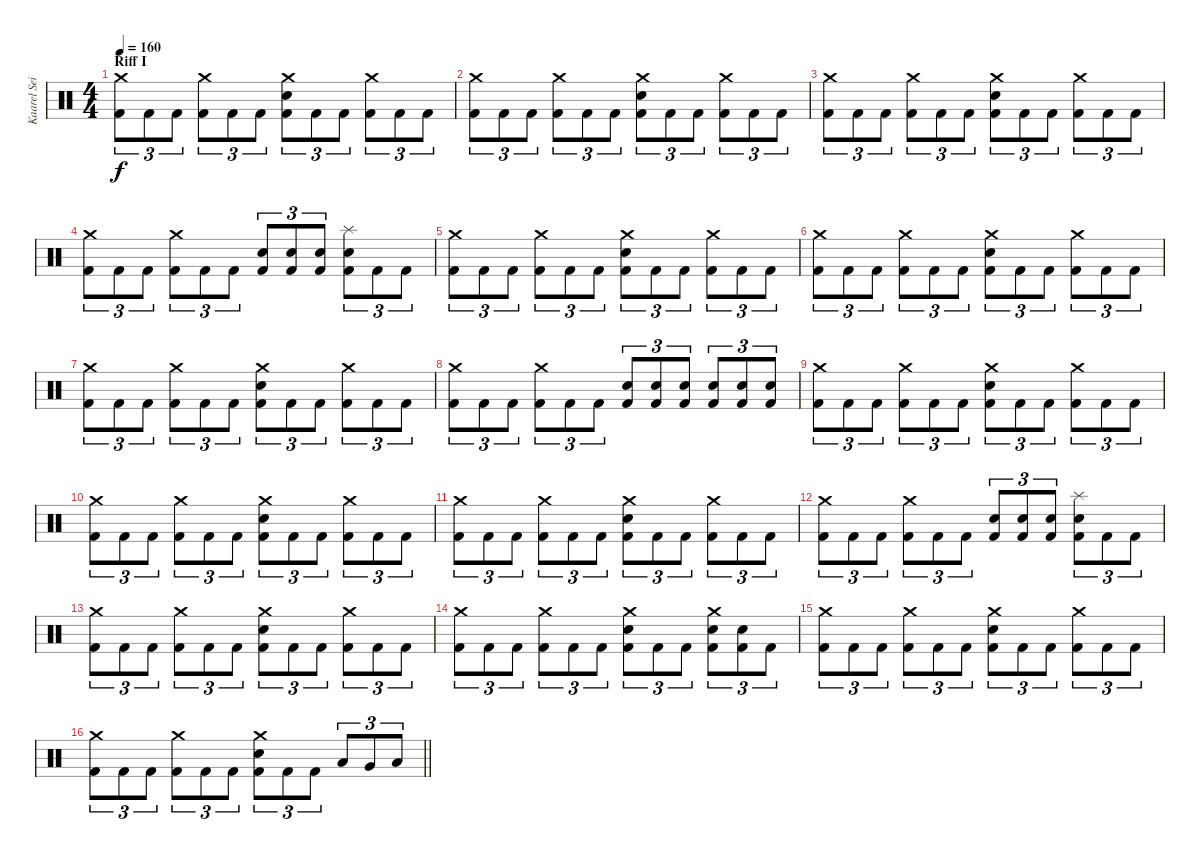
\track ("Kaarel Sein" "Kaarel Sei") {instrument percussion}
\staff {score}
\articulation defaults
\ts (4 4)
\section ("" "Riff I")
\tempo 160
\clef neutral
\ks c
("Crash medium (hit)" "Kick (hit) 2").8{tu (3 2) dy f} "Kick (hit) 2".8{tu (3 2)} "Kick (hit) 2".8{tu (3 2)} ("Crash medium (hit)" "Kick (hit) 2").8{tu (3 2)} "Kick (hit) 2".8{tu (3 2)} "Kick (hit) 2".8{tu (3 2)} ("Crash medium (hit)" "Electric Snare (hit)" "Kick (hit) 2").8{tu (3 2)} "Kick (hit) 2".8{tu (3 2)} "Kick (hit) 2".8{tu (3 2)} ("Crash medium (hit)" "Kick (hit) 2").8{tu (3 2)} "Kick (hit) 2".8{tu (3 2)} "Kick (hit) 2".8{tu (3 2)} |
("Crash medium (hit)" "Kick (hit) 2").8{tu (3 2)} "Kick (hit) 2".8{tu (3 2)} "Kick (hit) 2".8{tu (3 2)} ("Crash medium (hit)" "Kick (hit) 2").8{tu (3 2)} "Kick (hit) 2".8{tu (3 2)} "Kick (hit) 2".8{tu (3 2)} ("Crash medium (hit)" "Electric Snare (hit)" "Kick (hit) 2").8{tu (3 2)} "Kick (hit) 2".8{tu (3 2)} "Kick (hit) 2".8{tu (3 2)} ("Crash medium (hit)" "Kick (hit) 2").8{tu (3 2)} "Kick (hit) 2".8{tu (3 2)} "Kick (hit) 2".8{tu (3 2)} |
("Crash medium (hit)" "Kick (hit) 2").8{tu (3 2)} "Kick (hit) 2".8{tu (3 2)} "Kick (hit) 2".8{tu (3 2)} ("Crash medium (hit)" "Kick (hit) 2").8{tu (3 2)} "Kick (hit) 2".8{tu (3 2)} "Kick (hit) 2".8{tu (3 2)} ("Crash medium (hit)" "Electric Snare (hit)" "Kick (hit) 2").8{tu (3 2)} "Kick (hit) 2".8{tu (3 2)} "Kick (hit) 2".8{tu (3 2)} ("Crash medium (hit)" "Kick (hit) 2").8{tu (3 2)} "Kick (hit) 2".8{tu (3 2)} "Kick (hit) 2".8{tu (3 2)} |
("Crash medium (hit)" "Kick (hit) 2").8{tu (3 2)} "Kick (hit) 2".8{tu (3 2)} "Kick (hit) 2".8{tu (3 2)} ("Crash medium (hit)" "Kick (hit) 2").8{tu (3 2)} "Kick (hit) 2".8{tu (3 2)} "Kick (hit) 2".8{tu (3 2)} ("Electric Snare (hit)" "Kick (hit) 2").8{tu (3 2)} ("Electric Snare (hit)" "Kick (hit) 2").8{tu (3 2)} ("Electric Snare (hit)" "Kick (hit) 2").8{tu (3 2)} ("Splash (hit)" "Electric Snare (hit)" "Kick (hit) 2").8{tu (3 2)} "Kick (hit) 2".8{tu (3 2)} "Kick (hit) 2".8{tu (3 2)} |
("Crash medium (hit)" "Kick (hit) 2").8{tu (3 2)} "Kick (hit) 2".8{tu (3 2)} "Kick (hit) 2".8{tu (3 2)} ("Crash medium (hit)" "Kick (hit) 2").8{tu (3 2)} "Kick (hit) 2".8{tu (3 2)} "Kick (hit) 2".8{tu (3 2)} ("Crash medium (hit)" "Electric Snare (hit)" "Kick (hit) 2").8{tu (3 2)} "Kick (hit) 2".8{tu (3 2)} "Kick (hit) 2".8{tu (3 2)} ("Crash medium (hit)" "Kick (hit) 2").8{tu (3 2)} "Kick (hit) 2".8{tu (3 2)} "Kick (hit) 2".8{tu (3 2)} |
("Crash medium (hit)" "Kick (hit) 2").8{tu (3 2)} "Kick (hit) 2".8{tu (3 2)} "Kick (hit) 2".8{tu (3 2)} ("Crash medium (hit)" "Kick (hit) 2").8{tu (3 2)} "Kick (hit) 2".8{tu (3 2)} "Kick (hit) 2".8{tu (3 2)} ("Crash medium (hit)" "Electric Snare (hit)" "Kick (hit) 2").8{tu (3 2)} "Kick (hit) 2".8{tu (3 2)} "Kick (hit) 2".8{tu (3 2)} ("Crash medium (hit)" "Kick (hit) 2").8{tu (3 2)} "Kick (hit) 2".8{tu (3 2)} "Kick (hit) 2".8{tu (3 2)} |
("Crash medium (hit)" "Kick (hit) 2").8{tu (3 2)} "Kick (hit) 2".8{tu (3 2)} "Kick (hit) 2".8{tu (3 2)} ("Crash medium (hit)" "Kick (hit) 2").8{tu (3 2)} "Kick (hit) 2".8{tu (3 2)} "Kick (hit) 2".8{tu (3 2)} ("Crash medium (hit)" "Electric Snare (hit)" "Kick (hit) 2").8{tu (3 2)} "Kick (hit) 2".8{tu (3 2)} "Kick (hit) 2".8{tu (3 2)} ("Crash medium (hit)" "Kick (hit) 2").8{tu (3 2)} "Kick (hit) 2".8{tu (3 2)} "Kick (hit) 2".8{tu (3 2)} |
("Crash medium (hit)" "Kick (hit) 2").8{tu (3 2)} "Kick (hit) 2".8{tu (3 2)} "Kick (hit) 2".8{tu (3 2)} ("Crash medium (hit)" "Kick (hit) 2").8{tu (3 2)} "Kick (hit) 2".8{tu (3 2)} "Kick (hit) 2".8{tu (3 2)} ("Electric Snare (hit)" "Kick (hit) 2").8{tu (3 2)} ("Electric Snare (hit)" "Kick (hit) 2").8{tu (3 2)} ("Electric Snare (hit)" "Kick (hit) 2").8{tu (3 2)} ("Electric Snare (hit)" "Kick (hit) 2").8{tu (3 2)} ("Electric Snare (hit)" "Kick (hit) 2").8{tu (3 2)} ("Electric Snare (hit)" "Kick (hit) 2").8{tu (3 2)} |
("Crash medium (hit)" "Kick (hit) 2").8{tu (3 2)} "Kick (hit) 2".8{tu (3 2)} "Kick (hit) 2".8{tu (3 2)} ("Crash medium (hit)" "Kick (hit) 2").8{tu (3 2)} "Kick (hit) 2".8{tu (3 2)} "Kick (hit) 2".8{tu (3 2)} ("Crash medium (hit)" "Electric Snare (hit)" "Kick (hit) 2").8{tu (3 2)} "Kick (hit) 2".8{tu (3 2)} "Kick (hit) 2".8{tu (3 2)} ("Crash medium (hit)" "Kick (hit) 2").8{tu (3 2)} "Kick (hit) 2".8{tu (3 2)} "Kick (hit) 2".8{tu (3 2)} |
("Crash medium (hit)" "Kick (hit) 2").8{tu (3 2)} "Kick (hit) 2".8{tu (3 2)} "Kick (hit) 2".8{tu (3 2)} ("Crash medium (hit)" "Kick (hit) 2").8{tu (3 2)} "Kick (hit) 2".8{tu (3 2)} "Kick (hit) 2".8{tu (3 2)} ("Crash medium (hit)" "Electric Snare (hit)" "Kick (hit) 2").8{tu (3 2)} "Kick (hit) 2".8{tu (3 2)} "Kick (hit) 2".8{tu (3 2)} ("Crash medium (hit)" "Kick (hit) 2").8{tu (3 2)} "Kick (hit) 2".8{tu (3 2)} "Kick (hit) 2".8{tu (3 2)} |
("Crash medium (hit)" "Kick (hit) 2").8{tu (3 2)} "Kick (hit) 2".8{tu (3 2)} "Kick (hit) 2".8{tu (3 2)} ("Crash medium (hit)" "Kick (hit) 2").8{tu (3 2)} "Kick (hit) 2".8{tu (3 2)} "Kick (hit) 2".8{tu (3 2)} ("Crash medium (hit)" "Electric Snare (hit)" "Kick (hit) 2").8{tu (3 2)} "Kick (hit) 2".8{tu (3 2)} "Kick (hit) 2".8{tu (3 2)} ("Crash medium (hit)" "Kick (hit) 2").8{tu (3 2)} "Kick (hit) 2".8{tu (3 2)} "Kick (hit) 2".8{tu (3 2)} |
("Crash medium (hit)" "Kick (hit) 2").8{tu (3 2)} "Kick (hit) 2".8{tu (3 2)} "Kick (hit) 2".8{tu (3 2)} ("Crash medium (hit)" "Kick (hit) 2").8{tu (3 2)} "Kick (hit) 2".8{tu (3 2)} "Kick (hit) 2".8{tu (3 2)} ("Electric Snare (hit)" "Kick (hit) 2").8{tu (3 2)} ("Electric Snare (hit)" "Kick (hit) 2").8{tu (3 2)} ("Electric Snare (hit)" "Kick (hit) 2").8{tu (3 2)} ("Splash (hit)" "Electric Snare (hit)" "Kick (hit) 2").8{tu (3 2)} "Kick (hit) 2".8{tu (3 2)} "Kick (hit) 2".8{tu (3 2)} |
("Crash medium (hit)" "Kick (hit) 2").8{tu (3 2)} "Kick (hit) 2".8{tu (3 2)} "Kick (hit) 2".8{tu (3 2)} ("Crash medium (hit)" "Kick (hit) 2").8{tu (3 2)} "Kick (hit) 2".8{tu (3 2)} "Kick (hit) 2".8{tu (3 2)} ("Crash medium (hit)" "Electric Snare (hit)" "Kick (hit) 2").8{tu (3 2)} "Kick (hit) 2".8{tu (3 2)} "Kick (hit) 2".8{tu (3 2)} ("Crash medium (hit)" "Kick (hit) 2").8{tu (3 2)} "Kick (hit) 2".8{tu (3 2)} "Kick (hit) 2".8{tu (3 2)} |
("Crash medium (hit)" "Kick (hit) 2").8{tu (3 2)} "Kick (hit) 2".8{tu (3 2)} "Kick (hit) 2".8{tu (3 2)} ("Crash medium (hit)" "Kick (hit) 2").8{tu (3 2)} "Kick (hit) 2".8{tu (3 2)} "Kick (hit) 2".8{tu (3 2)} ("Crash medium (hit)" "Electric Snare (hit)" "Kick (hit) 2").8{tu (3 2)} "Kick (hit) 2".8{tu (3 2)} "Kick (hit) 2".8{tu (3 2)} ("Crash medium (hit)" "Electric Snare (hit)" "Kick (hit) 2").8{tu (3 2)} ("Electric Snare (hit)" "Kick (hit) 2").8{tu (3 2)} "Kick (hit) 2".8{tu (3 2)} |
("Crash medium (hit)" "Kick (hit) 2").8{tu (3 2)} "Kick (hit) 2".8{tu (3 2)} "Kick (hit) 2".8{tu (3 2)} ("Crash medium (hit)" "Kick (hit) 2").8{tu (3 2)} "Kick (hit) 2".8{tu (3 2)} "Kick (hit) 2".8{tu (3 2)} ("Crash medium (hit)" "Electric Snare (hit)" "Kick (hit) 2").8{tu (3 2)} "Kick (hit) 2".8{tu (3 2)} "Kick (hit) 2".8{tu (3 2)} ("Crash medium (hit)" "Kick (hit) 2").8{tu (3 2)} "Kick (hit) 2".8{tu (3 2)} "Kick (hit) 2".8{tu (3 2)} |
\barLineRight lightlight
("Crash medium (hit)" "Kick (hit) 2").8{tu (3 2)} "Kick (hit) 2".8{tu (3 2)} "Kick (hit) 2".8{tu (3 2)} ("Crash medium (hit)" "Kick (hit) 2").8{tu (3 2)} "Kick (hit) 2".8{tu (3 2)} "Kick (hit) 2".8{tu (3 2)} ("Crash medium (hit)" "Electric Snare (hit)" "Kick (hit) 2").8{tu (3 2)} "Kick (hit) 2".8{tu (3 2)} "Kick (hit) 2".8{tu (3 2)} "Low Tom (hit)".8{tu (3 2)} "Very Low Tom (hit)".8{tu (3 2)} "Low Floor Tom (hit)".8{tu (3 2)}
